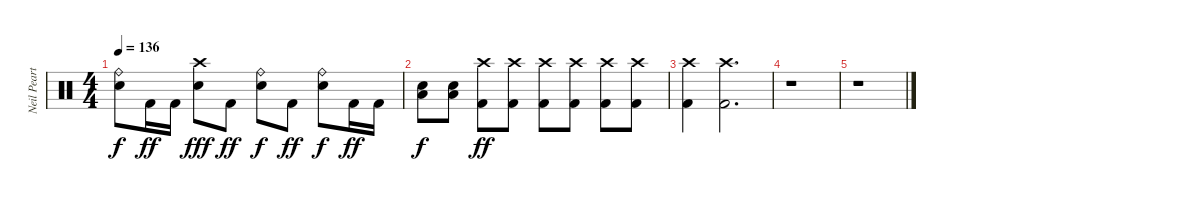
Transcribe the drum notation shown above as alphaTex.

\track ("Neil Peart" "Neil Peart") {instrument percussion}
\staff {score}
\articulation defaults
\ts (4 4)
\tempo 136
\clef neutral
\ks c
("Ride (bell)" "Snare (hit) 2").8{dy f} "Kick (hit) 2".16{dy ff} "Kick (hit) 2".16 ("Crash high (hit)" "Snare (hit) 2").8{dy fff} "Kick (hit) 2".8{dy ff} ("Ride (bell)" "Snare (hit) 2").8{dy f} "Kick (hit) 2".8{dy ff} ("Ride (bell)" "Snare (hit) 2").8{dy f} "Kick (hit) 2".16{dy ff} "Kick (hit) 2".16 |
("Snare (hit) 2" "Low Floor Tom (hit)").8{dy f} ("Snare (hit) 2" "Low Floor Tom (hit)").8 ("Crash high (hit)" "Kick (hit) 2").8{dy ff} ("Crash high (hit)" "Kick (hit) 2").8 ("Crash high (hit)" "Kick (hit) 2").8 ("Crash high (hit)" "Kick (hit) 2").8 ("Crash high (hit)" "Kick (hit) 2").8 ("Crash high (hit)" "Kick (hit) 2").8 |
("Crash high (hit)" "Kick (hit) 2").4 ("Crash high (hit)" "Kick (hit) 2").2{d} |
r.1 |
r.1
